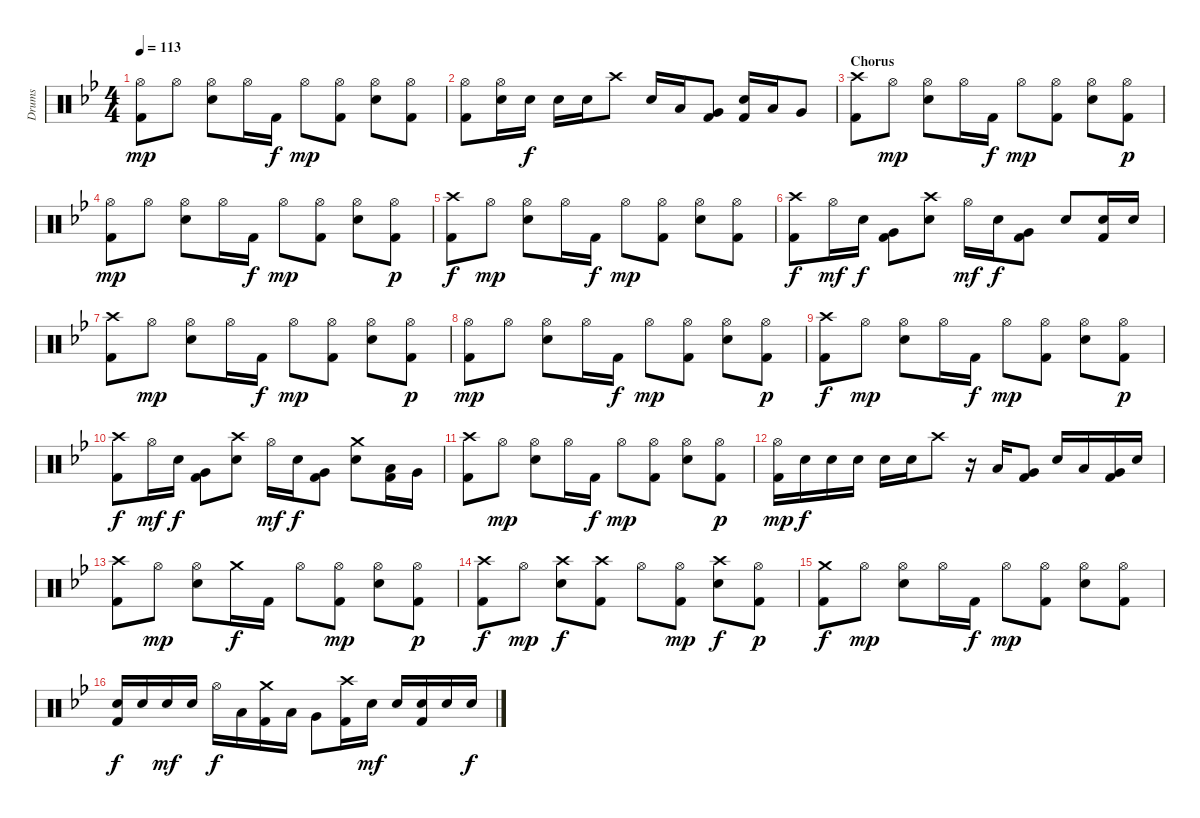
\track ("Drums" "Drums") {instrument percussion}
\staff {score}
\articulation defaults
\ts (4 4)
\tempo 113
\clef neutral
\ks bb
("Hi-Hat (open)" "Kick (hit) 2").8{dy mp} "Hi-Hat (open)".8 ("Hi-Hat (open)" "Electric Snare (hit)").8 "Hi-Hat (open)".16 "Kick (hit) 2".16{dy f} "Hi-Hat (open)".8{dy mp} ("Hi-Hat (open)" "Kick (hit) 2").8 ("Hi-Hat (open)" "Electric Snare (hit)").8 ("Hi-Hat (open)" "Kick (hit) 2").8 |
("Hi-Hat (open)" "Kick (hit) 2").8 ("Hi-Hat (open)" "Electric Snare (hit)").16 "Electric Snare (hit)".16{dy f} "Electric Snare (hit)".16 "Electric Snare (hit)".16 "Crash high (hit)".8 "Electric Snare (hit)".16 "Low Tom (hit)".16 ("Very Low Tom (hit)" "Kick (hit) 2").8 ("Electric Snare (hit)" "Kick (hit) 2").16 "Low Tom (hit)".16 "Very Low Tom (hit)".8 |
\section ("" "Chorus")
("Crash high (hit)" "Kick (hit) 2").8 "Hi-Hat (open)".8{dy mp} ("Hi-Hat (open)" "Electric Snare (hit)").8 "Hi-Hat (open)".16 "Kick (hit) 2".16{dy f} "Hi-Hat (open)".8{dy mp} ("Hi-Hat (open)" "Kick (hit) 2").8 ("Hi-Hat (open)" "Electric Snare (hit)").8 ("Hi-Hat (open)" "Kick (hit) 2").8{dy p} |
("Hi-Hat (open)" "Kick (hit) 2").8{dy mp} "Hi-Hat (open)".8 ("Hi-Hat (open)" "Electric Snare (hit)").8 "Hi-Hat (open)".16 "Kick (hit) 2".16{dy f} "Hi-Hat (open)".8{dy mp} ("Hi-Hat (open)" "Kick (hit) 2").8 ("Hi-Hat (open)" "Electric Snare (hit)").8 ("Hi-Hat (open)" "Kick (hit) 2").8{dy p} |
("Crash high (hit)" "Kick (hit) 2").8{dy f} "Hi-Hat (open)".8{dy mp} ("Hi-Hat (open)" "Electric Snare (hit)").8 "Hi-Hat (open)".16 "Kick (hit) 2".16{dy f} "Hi-Hat (open)".8{dy mp} ("Hi-Hat (open)" "Kick (hit) 2").8 ("Hi-Hat (open)" "Electric Snare (hit)").8 ("Hi-Hat (open)" "Kick (hit) 2").8 |
("Crash high (hit)" "Kick (hit) 2").8{dy f} "Hi-Hat (open)".16{dy mf} "Electric Snare (hit)".16{dy f} ("Very Low Tom (hit)" "Kick (hit) 2").8 ("Crash high (hit)" "Electric Snare (hit)").8 "Hi-Hat (open)".16{dy mf} "Electric Snare (hit)".16{dy f} ("Very Low Tom (hit)" "Kick (hit) 2").8 "Electric Snare (hit)".8 ("Electric Snare (hit)" "Kick (hit) 2").16 "Electric Snare (hit)".16 |
("Crash high (hit)" "Kick (hit) 2").8 "Hi-Hat (open)".8{dy mp} ("Hi-Hat (open)" "Electric Snare (hit)").8 "Hi-Hat (open)".16 "Kick (hit) 2".16{dy f} "Hi-Hat (open)".8{dy mp} ("Hi-Hat (open)" "Kick (hit) 2").8 ("Hi-Hat (open)" "Electric Snare (hit)").8 ("Hi-Hat (open)" "Kick (hit) 2").8{dy p} |
("Hi-Hat (open)" "Kick (hit) 2").8{dy mp} "Hi-Hat (open)".8 ("Hi-Hat (open)" "Electric Snare (hit)").8 "Hi-Hat (open)".16 "Kick (hit) 2".16{dy f} "Hi-Hat (open)".8{dy mp} ("Hi-Hat (open)" "Kick (hit) 2").8 ("Hi-Hat (open)" "Electric Snare (hit)").8 ("Hi-Hat (open)" "Kick (hit) 2").8{dy p} |
("Crash high (hit)" "Kick (hit) 2").8{dy f} "Hi-Hat (open)".8{dy mp} ("Hi-Hat (open)" "Electric Snare (hit)").8 "Hi-Hat (open)".16 "Kick (hit) 2".16{dy f} "Hi-Hat (open)".8{dy mp} ("Hi-Hat (open)" "Kick (hit) 2").8 ("Hi-Hat (open)" "Electric Snare (hit)").8 ("Hi-Hat (open)" "Kick (hit) 2").8{dy p} |
("Crash high (hit)" "Kick (hit) 2").8{dy f} "Hi-Hat (open)".16{dy mf} "Electric Snare (hit)".16{dy f} ("Very Low Tom (hit)" "Kick (hit) 2").8 ("Crash high (hit)" "Electric Snare (hit)").8 "Hi-Hat (open)".16{dy mf} "Electric Snare (hit)".16{dy f} ("Very Low Tom (hit)" "Kick (hit) 2").8 ("Crash medium (hit)" "Electric Snare (hit)").8 ("Low Tom (hit)" "Kick (hit) 2").16 "Very Low Tom (hit)".16 |
("Crash high (hit)" "Kick (hit) 2").8 "Hi-Hat (open)".8{dy mp} ("Hi-Hat (open)" "Electric Snare (hit)").8 "Hi-Hat (open)".16 "Kick (hit) 2".16{dy f} "Hi-Hat (open)".8{dy mp} ("Hi-Hat (open)" "Kick (hit) 2").8 ("Hi-Hat (open)" "Electric Snare (hit)").8 ("Hi-Hat (open)" "Kick (hit) 2").8{dy p} |
("Hi-Hat (open)" "Kick (hit) 2").16{dy mp} "Electric Snare (hit)".16{dy f} "Electric Snare (hit)".16 "Electric Snare (hit)".16 "Electric Snare (hit)".16 "Electric Snare (hit)".16 "Crash high (hit)".8 r.16 "Low Tom (hit)".16 ("Very Low Tom (hit)" "Kick (hit) 2").8 "Electric Snare (hit)".16 "Low Tom (hit)".16 ("Very Low Tom (hit)" "Kick (hit) 2").16 "Electric Snare (hit)".16 |
("Crash high (hit)" "Kick (hit) 2").8 "Hi-Hat (open)".8{dy mp} ("Hi-Hat (open)" "Electric Snare (hit)").8 "Crash medium (hit)".16{dy f} "Kick (hit) 2".16 "Hi-Hat (open)".8 ("Hi-Hat (open)" "Kick (hit) 2").8{dy mp} ("Hi-Hat (open)" "Electric Snare (hit)").8 ("Hi-Hat (open)" "Kick (hit) 2").8{dy p} |
("Crash high (hit)" "Kick (hit) 2").8{dy f} "Hi-Hat (open)".8{dy mp} ("Crash high (hit)" "Electric Snare (hit)").8{dy f} ("Crash high (hit)" "Kick (hit) 2").8 "Hi-Hat (open)".8 ("Hi-Hat (open)" "Kick (hit) 2").8{dy mp} ("Crash high (hit)" "Electric Snare (hit)").8{dy f} ("Hi-Hat (open)" "Kick (hit) 2").8{dy p} |
("Crash medium (hit)" "Kick (hit) 2").8{dy f} "Hi-Hat (open)".8{dy mp} ("Hi-Hat (open)" "Electric Snare (hit)").8 "Hi-Hat (open)".16 "Kick (hit) 2".16{dy f} "Hi-Hat (open)".8{dy mp} ("Hi-Hat (open)" "Kick (hit) 2").8 ("Hi-Hat (open)" "Electric Snare (hit)").8 ("Hi-Hat (open)" "Kick (hit) 2").8 |
("Electric Snare (hit)" "Kick (hit) 2").16{dy f} "Electric Snare (hit)".16 "Electric Snare (hit)".16{dy mf} "Electric Snare (hit)".16 "Hi-Hat (open)".16{dy f} "Low Tom (hit)".16 ("Crash medium (hit)" "Kick (hit) 2").16 "Low Tom (hit)".16 "Very Low Tom (hit)".8 ("Crash high (hit)" "Kick (hit) 2").16 "Electric Snare (hit)".16{dy mf} "Electric Snare (hit)".16 ("Electric Snare (hit)" "Kick (hit) 2").16 "Electric Snare (hit)".16 "Electric Snare (hit)".16{dy f}
